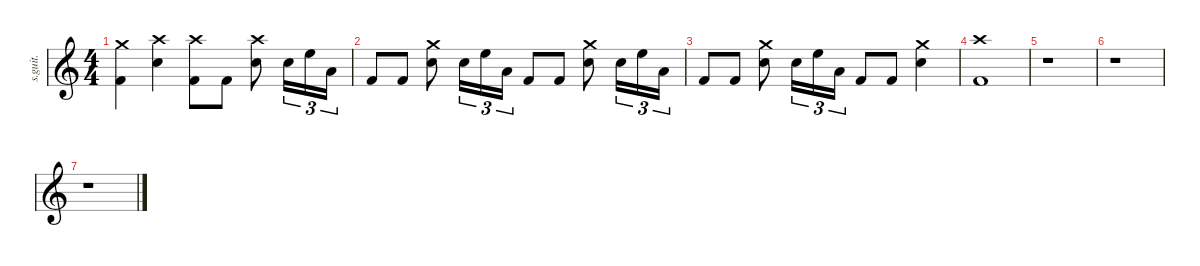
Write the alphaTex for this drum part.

\defaultSystemsLayout 4
\hideDynamics
\bracketExtendMode nobrackets
\track ("Travis" "s.guit.") {instrument percussion}
\staff {score}
\articulation defaults
\ts (4 4)
\tempo (149 hide)
\clef g2
\ks c
("Crash medium (hit)" "Kick (hit) 2").4{lyrics (0 "") lyrics (1 "") lyrics (2 "") lyrics (3 "") lyrics (4 "") dy f} ("Crash high (hit)" "Snare (hit) 2").4{lyrics (0 "") lyrics (1 "") lyrics (2 "") lyrics (3 "") lyrics (4 "")} ("Crash high (hit)" "Kick (hit) 2").8{lyrics (0 "") lyrics (1 "") lyrics (2 "") lyrics (3 "") lyrics (4 "")} "Kick (hit) 2".8{lyrics (0 "") lyrics (1 "") lyrics (2 "") lyrics (3 "") lyrics (4 "")} ("Crash high (hit)" "Snare (hit) 2").8{lyrics (0 "") lyrics (1 "") lyrics (2 "") lyrics (3 "") lyrics (4 "")} "Snare (hit) 2".16{tu (3 2) lyrics (0 "") lyrics (1 "") lyrics (2 "") lyrics (3 "") lyrics (4 "")} "High Floor Tom (hit)".16{tu (3 2) lyrics (0 "") lyrics (1 "") lyrics (2 "") lyrics (3 "") lyrics (4 "")} "Low Tom (hit)".16{tu (3 2) lyrics (0 "") lyrics (1 "") lyrics (2 "") lyrics (3 "") lyrics (4 "")} |
"Kick (hit) 2".8{lyrics (0 "") lyrics (1 "") lyrics (2 "") lyrics (3 "") lyrics (4 "")} "Kick (hit) 2".8{lyrics (0 "") lyrics (1 "") lyrics (2 "") lyrics (3 "") lyrics (4 "")} ("Crash medium (hit)" "Snare (hit) 2").8{lyrics (0 "") lyrics (1 "") lyrics (2 "") lyrics (3 "") lyrics (4 "")} "Snare (hit) 2".16{tu (3 2) lyrics (0 "") lyrics (1 "") lyrics (2 "") lyrics (3 "") lyrics (4 "")} "High Floor Tom (hit)".16{tu (3 2) lyrics (0 "") lyrics (1 "") lyrics (2 "") lyrics (3 "") lyrics (4 "")} "Low Tom (hit)".16{tu (3 2) lyrics (0 "") lyrics (1 "") lyrics (2 "") lyrics (3 "") lyrics (4 "")} "Kick (hit) 2".8{lyrics (0 "") lyrics (1 "") lyrics (2 "") lyrics (3 "") lyrics (4 "")} "Kick (hit) 2".8{lyrics (0 "") lyrics (1 "") lyrics (2 "") lyrics (3 "") lyrics (4 "")} ("Crash medium (hit)" "Snare (hit) 2").8{lyrics (0 "") lyrics (1 "") lyrics (2 "") lyrics (3 "") lyrics (4 "")} "Snare (hit) 2".16{tu (3 2) lyrics (0 "") lyrics (1 "") lyrics (2 "") lyrics (3 "") lyrics (4 "")} "High Floor Tom (hit)".16{tu (3 2) lyrics (0 "") lyrics (1 "") lyrics (2 "") lyrics (3 "") lyrics (4 "")} "Low Tom (hit)".16{tu (3 2) lyrics (0 "") lyrics (1 "") lyrics (2 "") lyrics (3 "") lyrics (4 "")} |
"Kick (hit) 2".8{lyrics (0 "") lyrics (1 "") lyrics (2 "") lyrics (3 "") lyrics (4 "")} "Kick (hit) 2".8{lyrics (0 "") lyrics (1 "") lyrics (2 "") lyrics (3 "") lyrics (4 "")} ("Crash medium (hit)" "Snare (hit) 2").8{lyrics (0 "") lyrics (1 "") lyrics (2 "") lyrics (3 "") lyrics (4 "")} "Snare (hit) 2".16{tu (3 2) lyrics (0 "") lyrics (1 "") lyrics (2 "") lyrics (3 "") lyrics (4 "")} "High Floor Tom (hit)".16{tu (3 2) lyrics (0 "") lyrics (1 "") lyrics (2 "") lyrics (3 "") lyrics (4 "")} "Low Tom (hit)".16{tu (3 2) lyrics (0 "") lyrics (1 "") lyrics (2 "") lyrics (3 "") lyrics (4 "")} "Kick (hit) 2".8{lyrics (0 "") lyrics (1 "") lyrics (2 "") lyrics (3 "") lyrics (4 "")} "Kick (hit) 2".8{lyrics (0 "") lyrics (1 "") lyrics (2 "") lyrics (3 "") lyrics (4 "")} ("Crash medium (hit)" "Snare (hit) 2").4{lyrics (0 "") lyrics (1 "") lyrics (2 "") lyrics (3 "") lyrics (4 "")} |
("Crash high (hit)" "Kick (hit) 2").1{lyrics (0 "") lyrics (1 "") lyrics (2 "") lyrics (3 "") lyrics (4 "")} |
r.1 |
r.1 |
r.1
